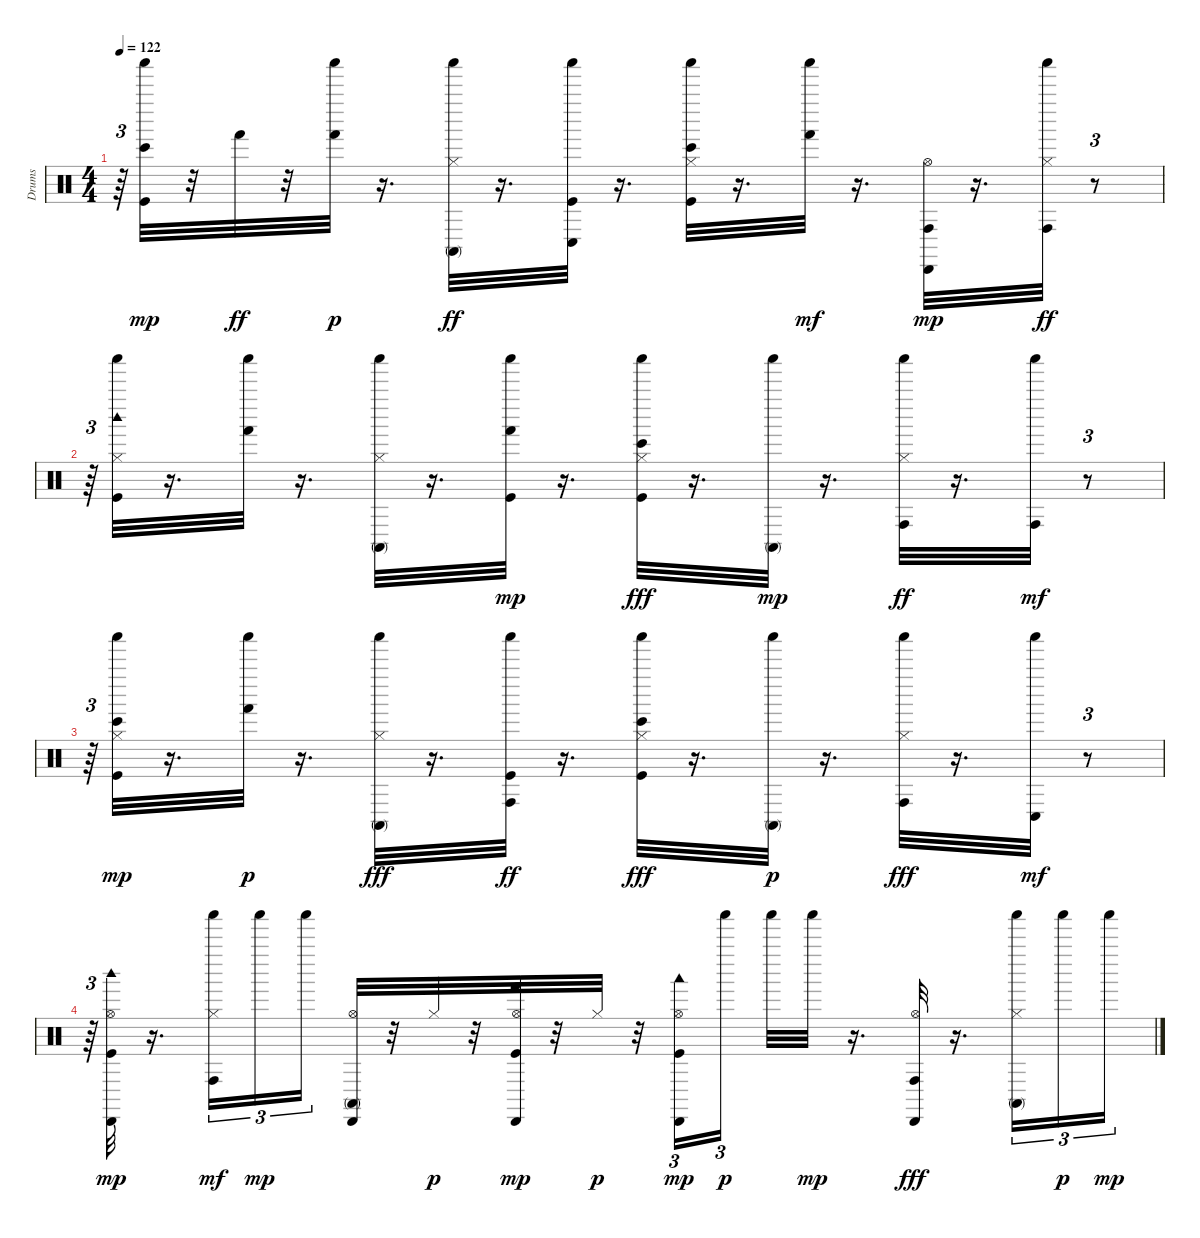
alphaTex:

\track ("Drums" "Drums") {instrument percussion}
\staff {score}
\articulation defaults
\ts (4 4)
\tempo 122
\clef neutral
\ks c
r.64{tu (3 2) dy mp} ("Kick (hit)" "Bongo High (hit)" "Shaker (hit)").32 r.32 "Hand (hit)".32{dy ff} r.32 ("Hand (hit)" "Shaker (hit)").32{dy p} r.16{d} ("Shaker (hit)" "Hi-Hat (closed)" "Conga high (mute)").32{dy ff} r.16{d} ("Shaker (hit)" "Kick (hit)" "Conga low (hit)").32 r.16{d} ("Shaker (hit)" "Kick (hit)" "Hi-Hat (closed)" "Bongo High (hit)").32 r.16{d} ("Shaker (hit)" "Hand (hit)").32{dy mf} r.16{d} ("Hi-Hat (open)" "Conga high (hit)" "Cabasa (hit)").32{dy mp} r.16{d} ("Shaker (hit)" "Hi-Hat (closed)" "Conga high (hit)").32{dy ff} r.8{tu (3 2)} |
r.64{tu (3 2)} ("Shaker (hit)" "Kick (hit)" "Hi-Hat (closed)" "Woodblock high (hit)").32 r.16{d} ("Shaker (hit)" "Hand (hit)").32 r.16{d} ("Shaker (hit)" "Hi-Hat (closed)" "Conga high (mute)").32 r.16{d} ("Shaker (hit)" "Kick (hit)" "Hand (hit)").32{dy mp} r.16{d} ("Shaker (hit)" "Kick (hit)" "Hi-Hat (closed)" "Bongo High (hit)").32{dy fff} r.16{d} ("Shaker (hit)" "Conga high (mute)").32{dy mp} r.16{d} ("Hi-Hat (closed)" "Shaker (hit)" "Conga high (hit)").32{dy ff} r.16{d} ("Shaker (hit)" "Conga high (hit)").32{dy mf} r.8{tu (3 2)} |
r.64{tu (3 2)} ("Kick (hit)" "Hi-Hat (closed)" "Bongo High (hit)" "Shaker (hit)").32{dy mp} r.16{d} ("Hand (hit)" "Shaker (hit)").32{dy p} r.16{d} ("Shaker (hit)" "Hi-Hat (closed)" "Conga high (mute)").32{dy fff} r.16{d} ("Shaker (hit)" "Kick (hit)" "Conga high (hit)").32{dy ff} r.16{d} ("Shaker (hit)" "Kick (hit)" "Hi-Hat (closed)" "Bongo High (hit)").32{dy fff} r.16{d} ("Shaker (hit)" "Conga high (mute)").32{dy p} r.16{d} ("Shaker (hit)" "Hi-Hat (closed)" "Conga high (hit)").32{dy fff} r.16{d} ("Shaker (hit)" "Conga low (hit)").32{dy mf} r.8{tu (3 2)} |
r.64{tu (3 2)} ("Woodblock high (hit)" "Kick (hit)" "Hi-Hat (open)" "Cabasa (hit)").32{dy mp} r.16{d} ("Shaker (hit)" "Hi-Hat (closed)" "Conga high (hit)").16{tu (3 2) dy mf} "Shaker (hit)".16{tu (3 2) dy mp} "Shaker (hit)".16{tu (3 2)} ("Hi-Hat (open)" "Conga high (mute)" "Cabasa (hit)").32 r.32 "Hi-Hat (closed)".32{dy p} r.32 ("Kick (hit)" "Hi-Hat (open)" "Hand (hit)" "Cabasa (hit)").32{dy mp} r.32 "Hi-Hat (closed)".32{dy p} r.32 ("Woodblock low (hit)" "Kick (hit)" "Hi-Hat (open)" "Cabasa (hit)").16{tu (3 2) dy mp} "Shaker (hit)".16{tu (3 2) dy p beam splitsecondary} "Shaker (hit)".32 "Shaker (hit)".32{dy mp} r.16{d} ("Hi-Hat (open)" "Conga high (hit)" "Cabasa (hit)").32{dy fff} r.16{d} ("Shaker (hit)" "Hi-Hat (closed)" "Conga high (mute)").16{tu (3 2)} "Shaker (hit)".16{tu (3 2) dy p} "Shaker (hit)".16{tu (3 2) dy mp}
